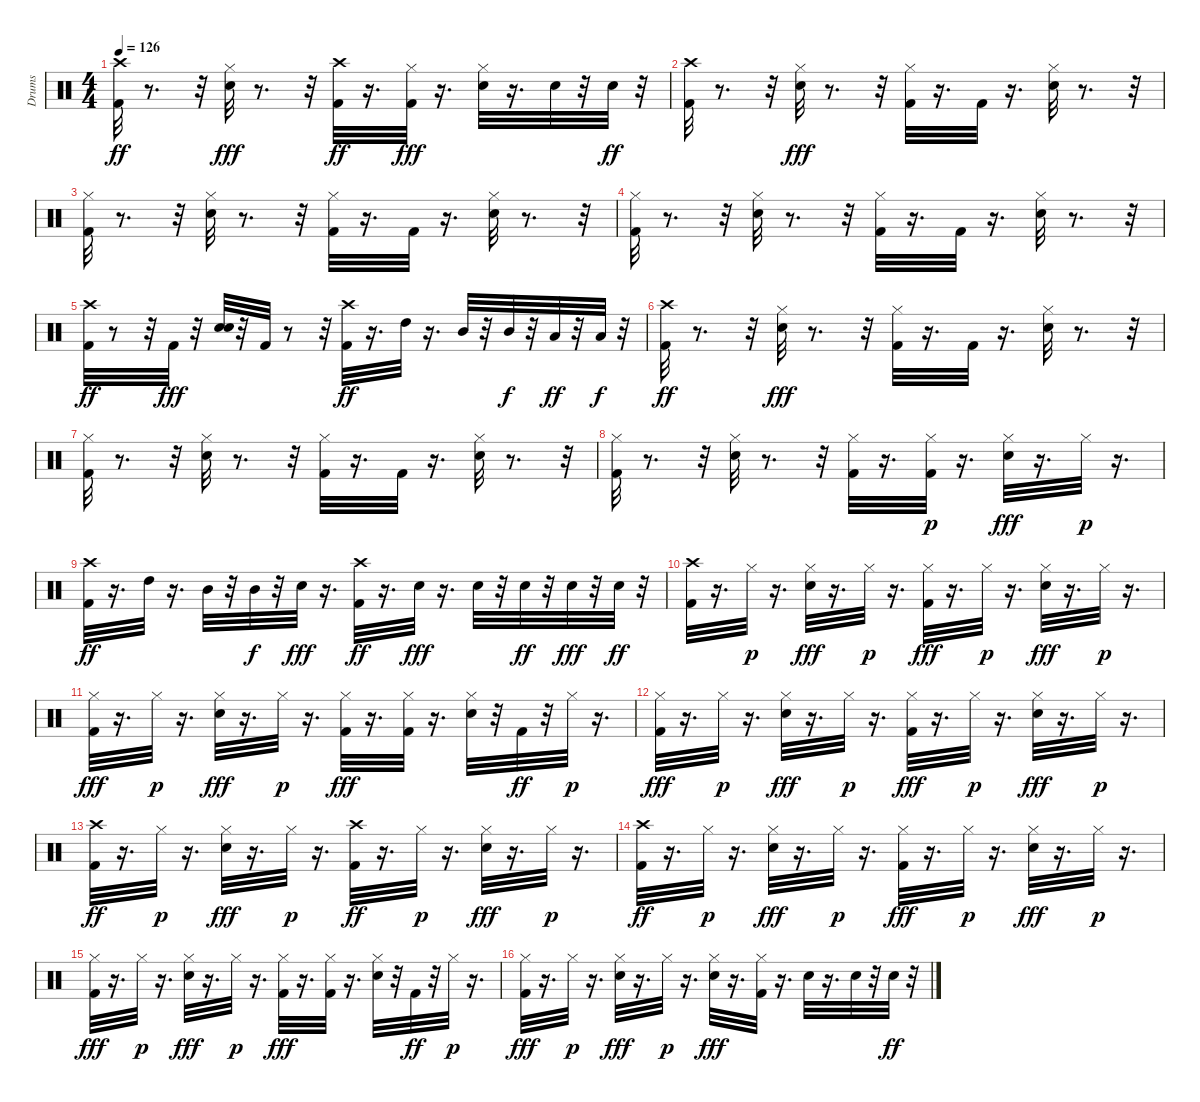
\track ("Drums                               " "Drums     ") {instrument percussion}
\staff {score}
\articulation defaults
\ts (4 4)
\tempo 126
\clef neutral
\ks c
("Kick (hit) 2" "Crash high (hit)").32{dy ff} r.8{d} r.32 ("Snare (hit) 2" "Hi-Hat (closed)").32{dy fff} r.8{d} r.32 ("Kick (hit) 2" "Crash high (hit)").32{dy ff} r.16{d} ("Kick (hit) 2" "Hi-Hat (closed)").32{dy fff} r.16{d} ("Snare (hit) 2" "Hi-Hat (closed)").32 r.16{d} "Snare (hit) 2".32 r.32 "Snare (hit) 2".32{dy ff} r.32 |
("Kick (hit) 2" "Crash high (hit)").32 r.8{d} r.32 ("Snare (hit) 2" "Hi-Hat (closed)").32{dy fff} r.8{d} r.32 ("Kick (hit) 2" "Hi-Hat (closed)").32 r.16{d} "Kick (hit) 2".32 r.16{d} ("Snare (hit) 2" "Hi-Hat (closed)").32 r.8{d} r.32 |
("Kick (hit) 2" "Hi-Hat (closed)").32 r.8{d} r.32 ("Snare (hit) 2" "Hi-Hat (closed)").32 r.8{d} r.32 ("Kick (hit) 2" "Hi-Hat (closed)").32 r.16{d} "Kick (hit) 2".32 r.16{d} ("Snare (hit) 2" "Hi-Hat (closed)").32 r.8{d} r.32 |
("Kick (hit) 2" "Hi-Hat (closed)").32 r.8{d} r.32 ("Snare (hit) 2" "Hi-Hat (closed)").32 r.8{d} r.32 ("Kick (hit) 2" "Hi-Hat (closed)").32 r.16{d} "Kick (hit) 2".32 r.16{d} ("Snare (hit) 2" "Hi-Hat (closed)").32 r.8{d} r.32 |
("Kick (hit) 2" "Crash high (hit)").32{dy ff} r.8 r.32 "Kick (hit) 2".32{dy fff} r.32 ("Snare (hit) 2" "Snare (hit) 2").32 r.32 "Kick (hit) 2".32 r.8 r.32 ("Kick (hit) 2" "Crash high (hit)").32{dy ff} r.16{d} "High Tom (hit)".32 r.16{d} "Mid Tom (hit)".32 r.32 "Mid Tom (hit)".32{dy f} r.32 "Low Tom (hit)".32{dy ff} r.32 "Low Tom (hit)".32{dy f} r.32 |
("Kick (hit) 2" "Crash high (hit)").32{dy ff} r.8{d} r.32 ("Snare (hit) 2" "Hi-Hat (closed)").32{dy fff} r.8{d} r.32 ("Kick (hit) 2" "Hi-Hat (closed)").32 r.16{d} "Kick (hit) 2".32 r.16{d} ("Snare (hit) 2" "Hi-Hat (closed)").32 r.8{d} r.32 |
("Kick (hit) 2" "Hi-Hat (closed)").32 r.8{d} r.32 ("Snare (hit) 2" "Hi-Hat (closed)").32 r.8{d} r.32 ("Kick (hit) 2" "Hi-Hat (closed)").32 r.16{d} "Kick (hit) 2".32 r.16{d} ("Snare (hit) 2" "Hi-Hat (closed)").32 r.8{d} r.32 |
("Kick (hit) 2" "Hi-Hat (closed)").32 r.8{d} r.32 ("Snare (hit) 2" "Hi-Hat (closed)").32 r.8{d} r.32 ("Kick (hit) 2" "Hi-Hat (closed)").32 r.16{d} ("Kick (hit) 2" "Hi-Hat (closed)").32{dy p} r.16{d} ("Snare (hit) 2" "Hi-Hat (closed)").32{dy fff} r.16{d} "Hi-Hat (closed)".32{dy p} r.16{d} |
("Kick (hit) 2" "Crash high (hit)").32{dy ff} r.16{d} "High Tom (hit)".32 r.16{d} "Mid Tom (hit)".32 r.32 "Mid Tom (hit)".32{dy f} r.32 "Snare (hit) 2".32{dy fff} r.16{d} ("Kick (hit) 2" "Crash high (hit)").32{dy ff} r.16{d} "Snare (hit) 2".32{dy fff} r.16{d} "Snare (hit) 2".32 r.32 "Snare (hit) 2".32{dy ff} r.32 "Snare (hit) 2".32{dy fff} r.32 "Snare (hit) 2".32{dy ff} r.32 |
("Kick (hit) 2" "Crash high (hit)").32 r.16{d} "Hi-Hat (closed)".32{dy p} r.16{d} ("Snare (hit) 2" "Hi-Hat (closed)").32{dy fff} r.16{d} "Hi-Hat (closed)".32{dy p} r.16{d} ("Kick (hit) 2" "Hi-Hat (closed)").32{dy fff} r.16{d} "Hi-Hat (closed)".32{dy p} r.16{d} ("Snare (hit) 2" "Hi-Hat (closed)").32{dy fff} r.16{d} "Hi-Hat (closed)".32{dy p} r.16{d} |
("Kick (hit) 2" "Hi-Hat (closed)").32{dy fff} r.16{d} "Hi-Hat (closed)".32{dy p} r.16{d} ("Snare (hit) 2" "Hi-Hat (closed)").32{dy fff} r.16{d} "Hi-Hat (closed)".32{dy p} r.16{d} ("Kick (hit) 2" "Hi-Hat (closed)").32{dy fff} r.16{d} ("Hi-Hat (closed)" "Kick (hit) 2").32 r.16{d} ("Snare (hit) 2" "Hi-Hat (closed)").32 r.32 "Kick (hit) 2".32{dy ff} r.32 "Hi-Hat (closed)".32{dy p} r.16{d} |
("Kick (hit) 2" "Hi-Hat (closed)").32{dy fff} r.16{d} "Hi-Hat (closed)".32{dy p} r.16{d} ("Snare (hit) 2" "Hi-Hat (closed)").32{dy fff} r.16{d} "Hi-Hat (closed)".32{dy p} r.16{d} ("Kick (hit) 2" "Hi-Hat (closed)").32{dy fff} r.16{d} "Hi-Hat (closed)".32{dy p} r.16{d} ("Snare (hit) 2" "Hi-Hat (closed)").32{dy fff} r.16{d} "Hi-Hat (closed)".32{dy p} r.16{d} |
("Kick (hit) 2" "Crash high (hit)").32{dy ff} r.16{d} "Hi-Hat (closed)".32{dy p} r.16{d} ("Snare (hit) 2" "Hi-Hat (closed)").32{dy fff} r.16{d} "Hi-Hat (closed)".32{dy p} r.16{d} ("Kick (hit) 2" "Crash high (hit)").32{dy ff} r.16{d} "Hi-Hat (closed)".32{dy p} r.16{d} ("Snare (hit) 2" "Hi-Hat (closed)").32{dy fff} r.16{d} "Hi-Hat (closed)".32{dy p} r.16{d} |
("Kick (hit) 2" "Crash high (hit)").32{dy ff} r.16{d} "Hi-Hat (closed)".32{dy p} r.16{d} ("Snare (hit) 2" "Hi-Hat (closed)").32{dy fff} r.16{d} "Hi-Hat (closed)".32{dy p} r.16{d} ("Kick (hit) 2" "Hi-Hat (closed)").32{dy fff} r.16{d} "Hi-Hat (closed)".32{dy p} r.16{d} ("Snare (hit) 2" "Hi-Hat (closed)").32{dy fff} r.16{d} "Hi-Hat (closed)".32{dy p} r.16{d} |
("Kick (hit) 2" "Hi-Hat (closed)").32{dy fff} r.16{d} "Hi-Hat (closed)".32{dy p} r.16{d} ("Snare (hit) 2" "Hi-Hat (closed)").32{dy fff} r.16{d} "Hi-Hat (closed)".32{dy p} r.16{d} ("Kick (hit) 2" "Hi-Hat (closed)").32{dy fff} r.16{d} ("Hi-Hat (closed)" "Kick (hit) 2").32 r.16{d} ("Snare (hit) 2" "Hi-Hat (closed)").32 r.32 "Kick (hit) 2".32{dy ff} r.32 "Hi-Hat (closed)".32{dy p} r.16{d} |
("Kick (hit) 2" "Hi-Hat (closed)").32{dy fff} r.16{d} "Hi-Hat (closed)".32{dy p} r.16{d} ("Snare (hit) 2" "Hi-Hat (closed)").32{dy fff} r.16{d} "Hi-Hat (closed)".32{dy p} r.16{d} ("Hi-Hat (closed)" "Snare (hit) 2").32{dy fff} r.16{d} ("Hi-Hat (closed)" "Kick (hit) 2").32 r.16{d} "Snare (hit) 2".32 r.16{d} "Snare (hit) 2".32 r.32 "Snare (hit) 2".32{dy ff} r.32
